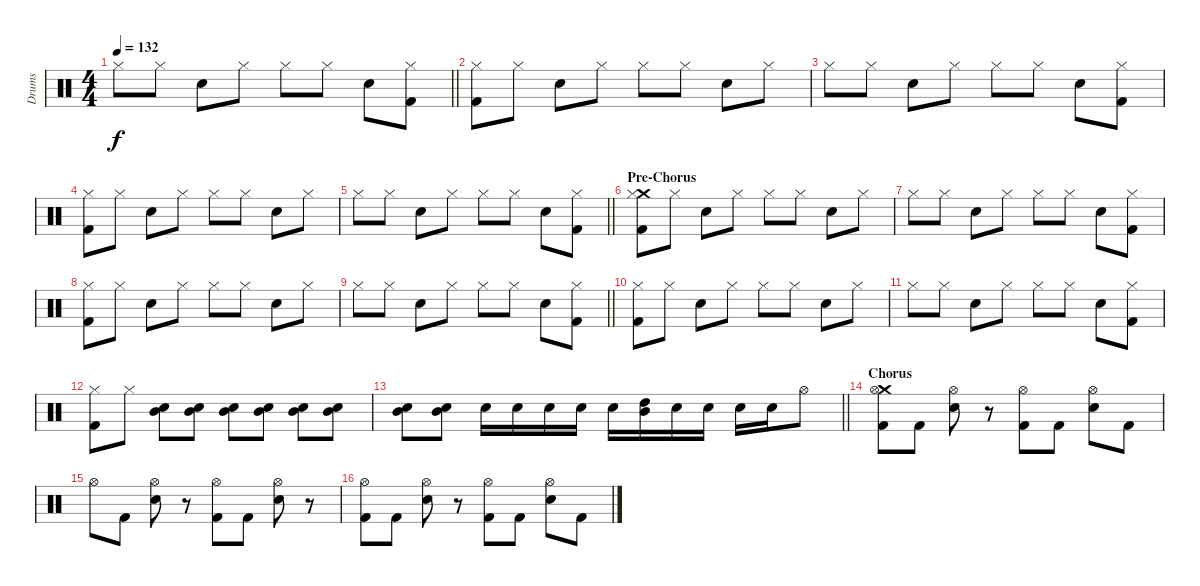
\track ("Drums" "Drums") {instrument percussion}
\staff
\articulation defaults
\ts (4 4)
\tempo 132
\clef neutral
\barLineRight lightlight
\ks c "Hi-Hat (closed)".8{dy f} "Hi-Hat (closed)".8 "Snare (hit) 2".8 "Hi-Hat (closed)".8 "Hi-Hat (closed)".8 "Hi-Hat (closed)".8 "Snare (hit) 2".8
("Hi-Hat (closed)" "Kick (hit) 2").8 |
("Hi-Hat (closed)" "Kick (hit) 2").8 "Hi-Hat (closed)".8 "Snare (hit) 2".8 "Hi-Hat (closed)".8 "Hi-Hat (closed)".8 "Hi-Hat (closed)".8 "Snare (hit) 2".8 "Hi-Hat (closed)".8 |
"Hi-Hat (closed)".8 "Hi-Hat (closed)".8 "Snare (hit) 2".8 "Hi-Hat (closed)".8 "Hi-Hat (closed)".8 "Hi-Hat (closed)".8 "Snare (hit) 2".8 ("Hi-Hat (closed)" "Kick (hit) 2").8 |
("Hi-Hat (closed)" "Kick (hit) 2").8 "Hi-Hat (closed)".8 "Snare (hit) 2".8 "Hi-Hat (closed)".8 "Hi-Hat (closed)".8 "Hi-Hat (closed)".8 "Snare (hit) 2".8 "Hi-Hat (closed)".8 |
\barLineRight lightlight "Hi-Hat (closed)".8 "Hi-Hat (closed)".8 "Snare (hit) 2".8 "Hi-Hat (closed)".8 "Hi-Hat (closed)".8 "Hi-Hat (closed)".8 "Snare (hit) 2".8
("Hi-Hat (closed)" "Kick (hit) 2").8 |
\section ("" "Pre-Chorus")
("Crash medium (hit)" "Hi-Hat (closed)" "Kick (hit) 2").8 "Hi-Hat (closed)".8 "Snare (hit) 2".8 "Hi-Hat (closed)".8 "Hi-Hat (closed)".8 "Hi-Hat (closed)".8 "Snare (hit) 2".8 "Hi-Hat (closed)".8 |
"Hi-Hat (closed)".8 "Hi-Hat (closed)".8 "Snare (hit) 2".8 "Hi-Hat (closed)".8 "Hi-Hat (closed)".8 "Hi-Hat (closed)".8 "Snare (hit) 2".8 ("Hi-Hat (closed)" "Kick (hit) 2").8 |
("Hi-Hat (closed)" "Kick (hit) 2").8 "Hi-Hat (closed)".8 "Snare (hit) 2".8 "Hi-Hat (closed)".8 "Hi-Hat (closed)".8 "Hi-Hat (closed)".8 "Snare (hit) 2".8 "Hi-Hat (closed)".8 |
\barLineRight lightlight "Hi-Hat (closed)".8 "Hi-Hat (closed)".8 "Snare (hit) 2".8 "Hi-Hat (closed)".8 "Hi-Hat (closed)".8 "Hi-Hat (closed)".8 "Snare (hit) 2".8
("Hi-Hat (closed)" "Kick (hit) 2").8 |
("Hi-Hat (closed)" "Kick (hit) 2").8 "Hi-Hat (closed)".8 "Snare (hit) 2".8 "Hi-Hat (closed)".8 "Hi-Hat (closed)".8 "Hi-Hat (closed)".8 "Snare (hit) 2".8 "Hi-Hat (closed)".8 |
"Hi-Hat (closed)".8 "Hi-Hat (closed)".8 "Snare (hit) 2".8 "Hi-Hat (closed)".8 "Hi-Hat (closed)".8 "Hi-Hat (closed)".8 "Snare (hit) 2".8 ("Hi-Hat (closed)" "Kick (hit) 2").8 |
("Hi-Hat (closed)" "Kick (hit) 2").8 "Hi-Hat (closed)".8 ("Mid Tom (hit)" "Snare (hit) 2").8 ("Mid Tom (hit)" "Snare (hit) 2").8 ("Mid Tom (hit)" "Snare (hit) 2").8 ("Mid Tom (hit)" "Snare (hit) 2").8 ("Mid Tom (hit)" "Snare (hit) 2").8 ("Mid Tom (hit)" "Snare (hit) 2").8 |
\barLineRight lightlight
("Mid Tom (hit)" "Snare (hit) 2").8 ("Mid Tom (hit)" "Snare (hit) 2").8 "Snare (hit) 2".16 "Snare (hit) 2".16 "Snare (hit) 2".16 "Snare (hit) 2".16 "Snare (hit) 2".16 ("Mid Tom (hit)" "High Tom (hit)").16 "Snare (hit) 2".16 "Snare (hit) 2".16 "Snare (hit) 2".16 "Snare (hit) 2".16 "Hi-Hat (open)".8 |
\section ("" "Chorus")
("Crash medium (hit)" "Hi-Hat (open)" "Kick (hit) 2").8 "Kick (hit) 2".8 ("Hi-Hat (open)" "Snare (hit) 2").8 r.8 ("Hi-Hat (open)" "Kick (hit) 2").8 "Kick (hit) 2".8 ("Hi-Hat (open)" "Snare (hit) 2").8 "Kick (hit) 2".8 |
"Hi-Hat (open)".8 "Kick (hit) 2".8 ("Hi-Hat (open)" "Snare (hit) 2").8 r.8 ("Hi-Hat (open)" "Kick (hit) 2").8 "Kick (hit) 2".8 ("Hi-Hat (open)" "Snare (hit) 2").8 r.8 |
("Hi-Hat (open)" "Kick (hit) 2").8 "Kick (hit) 2".8 ("Hi-Hat (open)" "Snare (hit) 2").8 r.8 ("Hi-Hat (open)" "Kick (hit) 2").8 "Kick (hit) 2".8 ("Hi-Hat (open)" "Snare (hit) 2").8 "Kick (hit) 2".8
